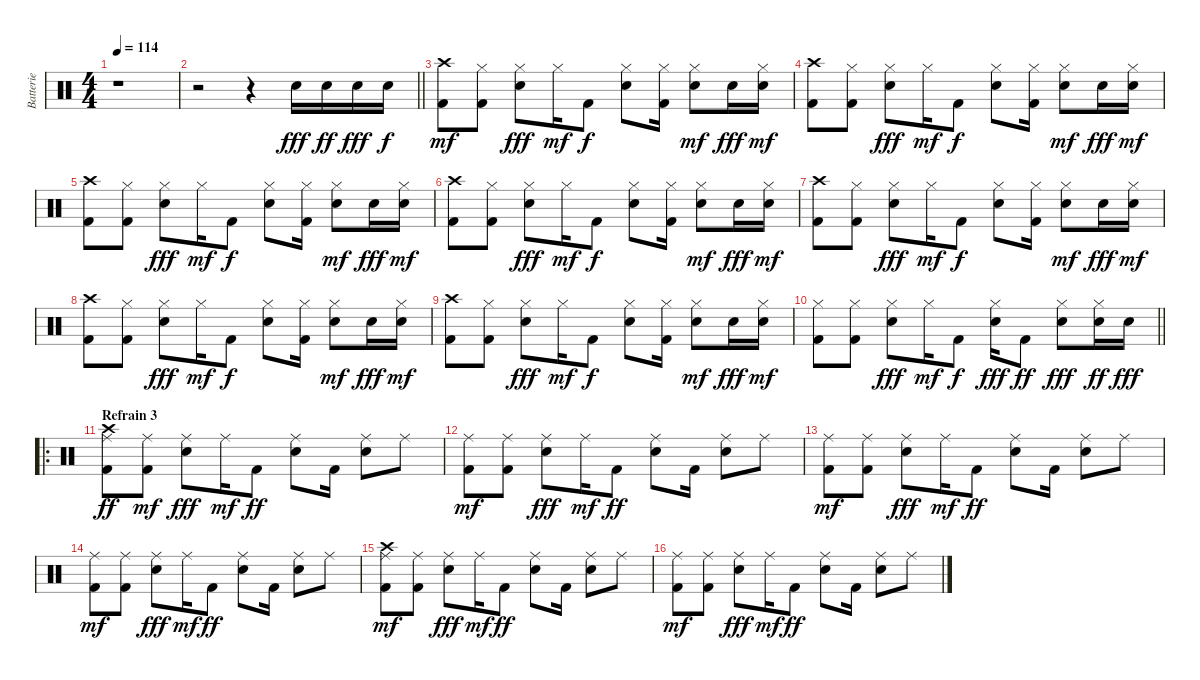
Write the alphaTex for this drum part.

\track ("Batterie" "Batterie") {instrument percussion}
\staff {score}
\articulation defaults
\ts (4 4)
\tempo 114
\clef neutral
\ks c
r.1{dy fff} |
\barLineRight lightlight
r.2 r.4 "Snare (hit) 2".16 "Snare (hit) 2".16{dy ff} "Snare (hit) 2".16{dy fff} "Snare (hit) 2".16{dy f} |
("Crash high (hit)" "Kick (hit) 2").8{dy mf} ("Hi-Hat (closed)" "Kick (hit) 2").8 ("Hi-Hat (closed)" "Snare (hit) 2").8{dy fff} "Hi-Hat (closed)".16{dy mf} "Kick (hit) 2".8{dy f} ("Hi-Hat (closed)" "Snare (hit) 2").8 ("Hi-Hat (closed)" "Kick (hit) 2").16 ("Hi-Hat (closed)" "Snare (hit) 2").8{dy mf} "Snare (hit) 2".16{dy fff} ("Hi-Hat (closed)" "Snare (hit) 2").16{dy mf} |
("Crash high (hit)" "Kick (hit) 2").8 ("Hi-Hat (closed)" "Kick (hit) 2").8 ("Hi-Hat (closed)" "Snare (hit) 2").8{dy fff} "Hi-Hat (closed)".16{dy mf} "Kick (hit) 2".8{dy f} ("Hi-Hat (closed)" "Snare (hit) 2").8 ("Hi-Hat (closed)" "Kick (hit) 2").16 ("Hi-Hat (closed)" "Snare (hit) 2").8{dy mf} "Snare (hit) 2".16{dy fff} ("Hi-Hat (closed)" "Snare (hit) 2").16{dy mf} |
("Crash high (hit)" "Kick (hit) 2").8 ("Hi-Hat (closed)" "Kick (hit) 2").8 ("Hi-Hat (closed)" "Snare (hit) 2").8{dy fff} "Hi-Hat (closed)".16{dy mf} "Kick (hit) 2".8{dy f} ("Hi-Hat (closed)" "Snare (hit) 2").8 ("Hi-Hat (closed)" "Kick (hit) 2").16 ("Hi-Hat (closed)" "Snare (hit) 2").8{dy mf} "Snare (hit) 2".16{dy fff} ("Hi-Hat (closed)" "Snare (hit) 2").16{dy mf} |
("Crash high (hit)" "Kick (hit) 2").8 ("Hi-Hat (closed)" "Kick (hit) 2").8 ("Hi-Hat (closed)" "Snare (hit) 2").8{dy fff} "Hi-Hat (closed)".16{dy mf} "Kick (hit) 2".8{dy f} ("Hi-Hat (closed)" "Snare (hit) 2").8 ("Hi-Hat (closed)" "Kick (hit) 2").16 ("Hi-Hat (closed)" "Snare (hit) 2").8{dy mf} "Snare (hit) 2".16{dy fff} ("Hi-Hat (closed)" "Snare (hit) 2").16{dy mf} |
("Crash high (hit)" "Kick (hit) 2").8 ("Hi-Hat (closed)" "Kick (hit) 2").8 ("Hi-Hat (closed)" "Snare (hit) 2").8{dy fff} "Hi-Hat (closed)".16{dy mf} "Kick (hit) 2".8{dy f} ("Hi-Hat (closed)" "Snare (hit) 2").8 ("Hi-Hat (closed)" "Kick (hit) 2").16 ("Hi-Hat (closed)" "Snare (hit) 2").8{dy mf} "Snare (hit) 2".16{dy fff} ("Hi-Hat (closed)" "Snare (hit) 2").16{dy mf} |
("Crash high (hit)" "Kick (hit) 2").8 ("Hi-Hat (closed)" "Kick (hit) 2").8 ("Hi-Hat (closed)" "Snare (hit) 2").8{dy fff} "Hi-Hat (closed)".16{dy mf} "Kick (hit) 2".8{dy f} ("Hi-Hat (closed)" "Snare (hit) 2").8 ("Hi-Hat (closed)" "Kick (hit) 2").16 ("Hi-Hat (closed)" "Snare (hit) 2").8{dy mf} "Snare (hit) 2".16{dy fff} ("Hi-Hat (closed)" "Snare (hit) 2").16{dy mf} |
("Crash high (hit)" "Kick (hit) 2").8 ("Hi-Hat (closed)" "Kick (hit) 2").8 ("Hi-Hat (closed)" "Snare (hit) 2").8{dy fff} "Hi-Hat (closed)".16{dy mf} "Kick (hit) 2".8{dy f} ("Hi-Hat (closed)" "Snare (hit) 2").8 ("Hi-Hat (closed)" "Kick (hit) 2").16 ("Hi-Hat (closed)" "Snare (hit) 2").8{dy mf} "Snare (hit) 2".16{dy fff} ("Hi-Hat (closed)" "Snare (hit) 2").16{dy mf} |
\barLineRight lightlight
("Hi-Hat (closed)" "Kick (hit) 2").8 ("Hi-Hat (closed)" "Kick (hit) 2").8 ("Hi-Hat (closed)" "Snare (hit) 2").8{dy fff} "Hi-Hat (closed)".16{dy mf} "Kick (hit) 2".8{dy f} ("Hi-Hat (closed)" "Snare (hit) 2").16{dy fff} "Kick (hit) 2".8{dy ff} ("Hi-Hat (closed)" "Snare (hit) 2").8{dy fff} ("Hi-Hat (closed)" "Snare (hit) 2").16{dy ff} "Snare (hit) 2".16{dy fff} |
\ro
\section ("" "Refrain 3")
("Ride (middle)" "Crash high (hit)" "Kick (hit) 2").8{dy ff} ("Ride (middle)" "Kick (hit) 2").8{dy mf} ("Ride (middle)" "Snare (hit) 2").8{dy fff} "Ride (middle)".16{dy mf} "Kick (hit) 2".8{dy ff} ("Ride (middle)" "Snare (hit) 2").8 "Kick (hit) 2".16 ("Ride (middle)" "Snare (hit) 2").8 "Ride (middle)".8 |
("Ride (middle)" "Kick (hit) 2").8{dy mf} ("Ride (middle)" "Kick (hit) 2").8 ("Ride (middle)" "Snare (hit) 2").8{dy fff} "Ride (middle)".16{dy mf} "Kick (hit) 2".8{dy ff} ("Ride (middle)" "Snare (hit) 2").8 "Kick (hit) 2".16 ("Ride (middle)" "Snare (hit) 2").8 "Ride (middle)".8 |
("Ride (middle)" "Kick (hit) 2").8{dy mf} ("Ride (middle)" "Kick (hit) 2").8 ("Ride (middle)" "Snare (hit) 2").8{dy fff} "Ride (middle)".16{dy mf} "Kick (hit) 2".8{dy ff} ("Ride (middle)" "Snare (hit) 2").8 "Kick (hit) 2".16 ("Ride (middle)" "Snare (hit) 2").8 "Ride (middle)".8 |
("Ride (middle)" "Kick (hit) 2").8{dy mf} ("Ride (middle)" "Kick (hit) 2").8 ("Ride (middle)" "Snare (hit) 2").8{dy fff} "Ride (middle)".16{dy mf} "Kick (hit) 2".8{dy ff} ("Ride (middle)" "Snare (hit) 2").8 "Kick (hit) 2".16 ("Ride (middle)" "Snare (hit) 2").8 "Ride (middle)".8 |
("Ride (middle)" "Crash high (hit)" "Kick (hit) 2").8{dy mf} ("Ride (middle)" "Kick (hit) 2").8 ("Ride (middle)" "Snare (hit) 2").8{dy fff} "Ride (middle)".16{dy mf} "Kick (hit) 2".8{dy ff} ("Ride (middle)" "Snare (hit) 2").8 "Kick (hit) 2".16 ("Ride (middle)" "Snare (hit) 2").8 "Ride (middle)".8 |
("Ride (middle)" "Kick (hit) 2").8{dy mf} ("Ride (middle)" "Kick (hit) 2").8 ("Ride (middle)" "Snare (hit) 2").8{dy fff} "Ride (middle)".16{dy mf} "Kick (hit) 2".8{dy ff} ("Ride (middle)" "Snare (hit) 2").8 "Kick (hit) 2".16 ("Ride (middle)" "Snare (hit) 2").8 "Ride (middle)".8
